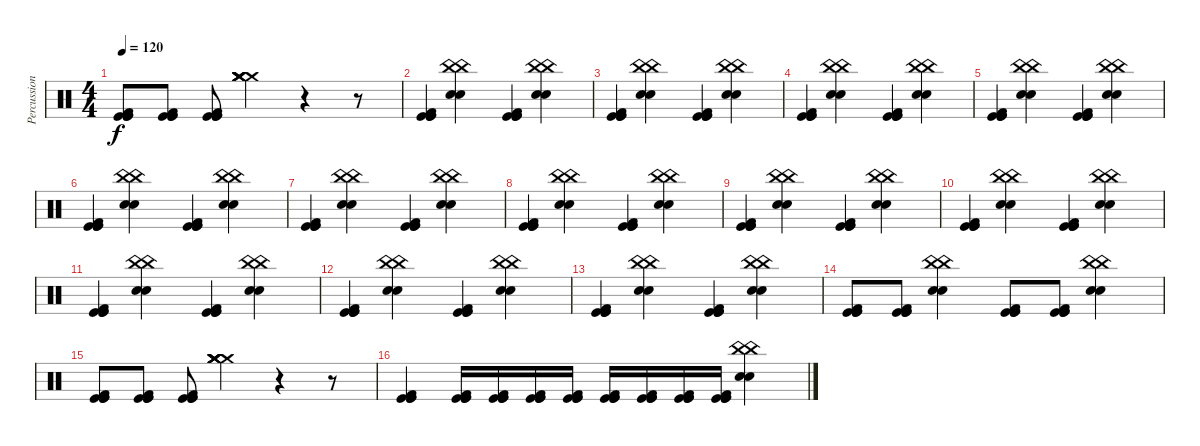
\track ("Percussion" "Percussion") {instrument percussion}
\staff {score}
\articulation defaults
\ts (4 4)
\tempo 120
\clef neutral
\ks c
("Kick (hit)" "Kick (hit)" "Kick (hit)" "Kick (hit) 2").8{dy f} ("Kick (hit)" "Kick (hit)" "Kick (hit)" "Kick (hit) 2").8 ("Kick (hit)" "Kick (hit)" "Kick (hit)" "Kick (hit) 2").8 ("Crash medium (hit)" "Crash medium (hit)" "Crash medium (hit)" "Crash medium (hit)" "Crash medium (hit)" "Crash medium (hit)").4 r.4 r.8 |
("Kick (hit)" "Kick (hit)" "Kick (hit)" "Kick (hit) 2").4 ("China (hit)" "China (hit)" "Snare (hit) 2" "Snare (hit) 2").4 ("Kick (hit)" "Kick (hit)" "Kick (hit)" "Kick (hit) 2").4 ("China (hit)" "China (hit)" "Snare (hit) 2" "Snare (hit) 2").4 |
("Kick (hit)" "Kick (hit)" "Kick (hit)" "Kick (hit) 2").4 ("China (hit)" "China (hit)" "Snare (hit) 2" "Snare (hit) 2").4 ("Kick (hit)" "Kick (hit)" "Kick (hit)" "Kick (hit) 2").4 ("China (hit)" "China (hit)" "Snare (hit) 2" "Snare (hit) 2").4 |
("Kick (hit)" "Kick (hit)" "Kick (hit)" "Kick (hit) 2").4 ("China (hit)" "China (hit)" "Snare (hit) 2" "Snare (hit) 2").4 ("Kick (hit)" "Kick (hit)" "Kick (hit)" "Kick (hit) 2").4 ("China (hit)" "China (hit)" "Snare (hit) 2" "Snare (hit) 2").4 |
("Kick (hit)" "Kick (hit)" "Kick (hit)" "Kick (hit) 2").4 ("China (hit)" "China (hit)" "Snare (hit) 2" "Snare (hit) 2").4 ("Kick (hit)" "Kick (hit)" "Kick (hit)" "Kick (hit) 2").4 ("China (hit)" "China (hit)" "Snare (hit) 2" "Snare (hit) 2").4 |
("Kick (hit)" "Kick (hit)" "Kick (hit)" "Kick (hit) 2").4 ("China (hit)" "China (hit)" "Snare (hit) 2" "Snare (hit) 2").4 ("Kick (hit)" "Kick (hit)" "Kick (hit)" "Kick (hit) 2").4 ("China (hit)" "China (hit)" "Snare (hit) 2" "Snare (hit) 2").4 |
("Kick (hit)" "Kick (hit)" "Kick (hit)" "Kick (hit) 2").4 ("China (hit)" "China (hit)" "Snare (hit) 2" "Snare (hit) 2").4 ("Kick (hit)" "Kick (hit)" "Kick (hit)" "Kick (hit) 2").4 ("China (hit)" "China (hit)" "Snare (hit) 2" "Snare (hit) 2").4 |
("Kick (hit)" "Kick (hit)" "Kick (hit)" "Kick (hit) 2").4 ("China (hit)" "China (hit)" "Snare (hit) 2" "Snare (hit) 2").4 ("Kick (hit)" "Kick (hit)" "Kick (hit)" "Kick (hit) 2").4 ("China (hit)" "China (hit)" "Snare (hit) 2" "Snare (hit) 2").4 |
("Kick (hit)" "Kick (hit)" "Kick (hit)" "Kick (hit) 2").4 ("China (hit)" "China (hit)" "Snare (hit) 2" "Snare (hit) 2").4 ("Kick (hit)" "Kick (hit)" "Kick (hit)" "Kick (hit) 2").4 ("China (hit)" "China (hit)" "Snare (hit) 2" "Snare (hit) 2").4 |
("Kick (hit)" "Kick (hit)" "Kick (hit)" "Kick (hit) 2").4 ("China (hit)" "China (hit)" "Snare (hit) 2" "Snare (hit) 2").4 ("Kick (hit)" "Kick (hit)" "Kick (hit)" "Kick (hit) 2").4 ("China (hit)" "China (hit)" "Snare (hit) 2" "Snare (hit) 2").4 |
("Kick (hit)" "Kick (hit)" "Kick (hit)" "Kick (hit) 2").4 ("China (hit)" "China (hit)" "Snare (hit) 2" "Snare (hit) 2").4 ("Kick (hit)" "Kick (hit)" "Kick (hit)" "Kick (hit) 2").4 ("China (hit)" "China (hit)" "Snare (hit) 2" "Snare (hit) 2").4 |
("Kick (hit)" "Kick (hit)" "Kick (hit)" "Kick (hit) 2").4 ("China (hit)" "China (hit)" "Snare (hit) 2" "Snare (hit) 2").4 ("Kick (hit)" "Kick (hit)" "Kick (hit)" "Kick (hit) 2").4 ("China (hit)" "China (hit)" "Snare (hit) 2" "Snare (hit) 2").4 |
("Kick (hit)" "Kick (hit)" "Kick (hit)" "Kick (hit) 2").4 ("China (hit)" "China (hit)" "Snare (hit) 2" "Snare (hit) 2").4 ("Kick (hit)" "Kick (hit)" "Kick (hit)" "Kick (hit) 2").4 ("China (hit)" "China (hit)" "Snare (hit) 2" "Snare (hit) 2").4 |
("Kick (hit)" "Kick (hit)" "Kick (hit)" "Kick (hit) 2").8 ("Kick (hit)" "Kick (hit)" "Kick (hit)" "Kick (hit) 2").8 ("China (hit)" "China (hit)" "Snare (hit) 2" "Snare (hit) 2").4 ("Kick (hit)" "Kick (hit)" "Kick (hit)" "Kick (hit) 2").8 ("Kick (hit)" "Kick (hit)" "Kick (hit)" "Kick (hit) 2").8 ("China (hit)" "China (hit)" "Snare (hit) 2" "Snare (hit) 2").4 |
("Kick (hit)" "Kick (hit)" "Kick (hit)" "Kick (hit) 2").8 ("Kick (hit)" "Kick (hit)" "Kick (hit)" "Kick (hit) 2").8 ("Kick (hit)" "Kick (hit)" "Kick (hit)" "Kick (hit) 2").8 ("Crash medium (hit)" "Crash medium (hit)" "Crash medium (hit)" "Crash medium (hit)" "Crash medium (hit)" "Crash medium (hit)").4 r.4 r.8 |
("Kick (hit)" "Kick (hit)" "Kick (hit)" "Kick (hit) 2").4 ("Kick (hit)" "Kick (hit)" "Kick (hit)" "Kick (hit) 2").16 ("Kick (hit)" "Kick (hit)" "Kick (hit)" "Kick (hit) 2").16 ("Kick (hit)" "Kick (hit)" "Kick (hit)" "Kick (hit) 2").16 ("Kick (hit)" "Kick (hit)" "Kick (hit)" "Kick (hit) 2").16 ("Kick (hit)" "Kick (hit)" "Kick (hit)" "Kick (hit) 2").16 ("Kick (hit)" "Kick (hit)" "Kick (hit)" "Kick (hit) 2").16 ("Kick (hit)" "Kick (hit)" "Kick (hit)" "Kick (hit) 2").16 ("Kick (hit)" "Kick (hit)" "Kick (hit)" "Kick (hit) 2").16 ("China (hit)" "China (hit)" "Snare (hit) 2" "Snare (hit) 2").4
